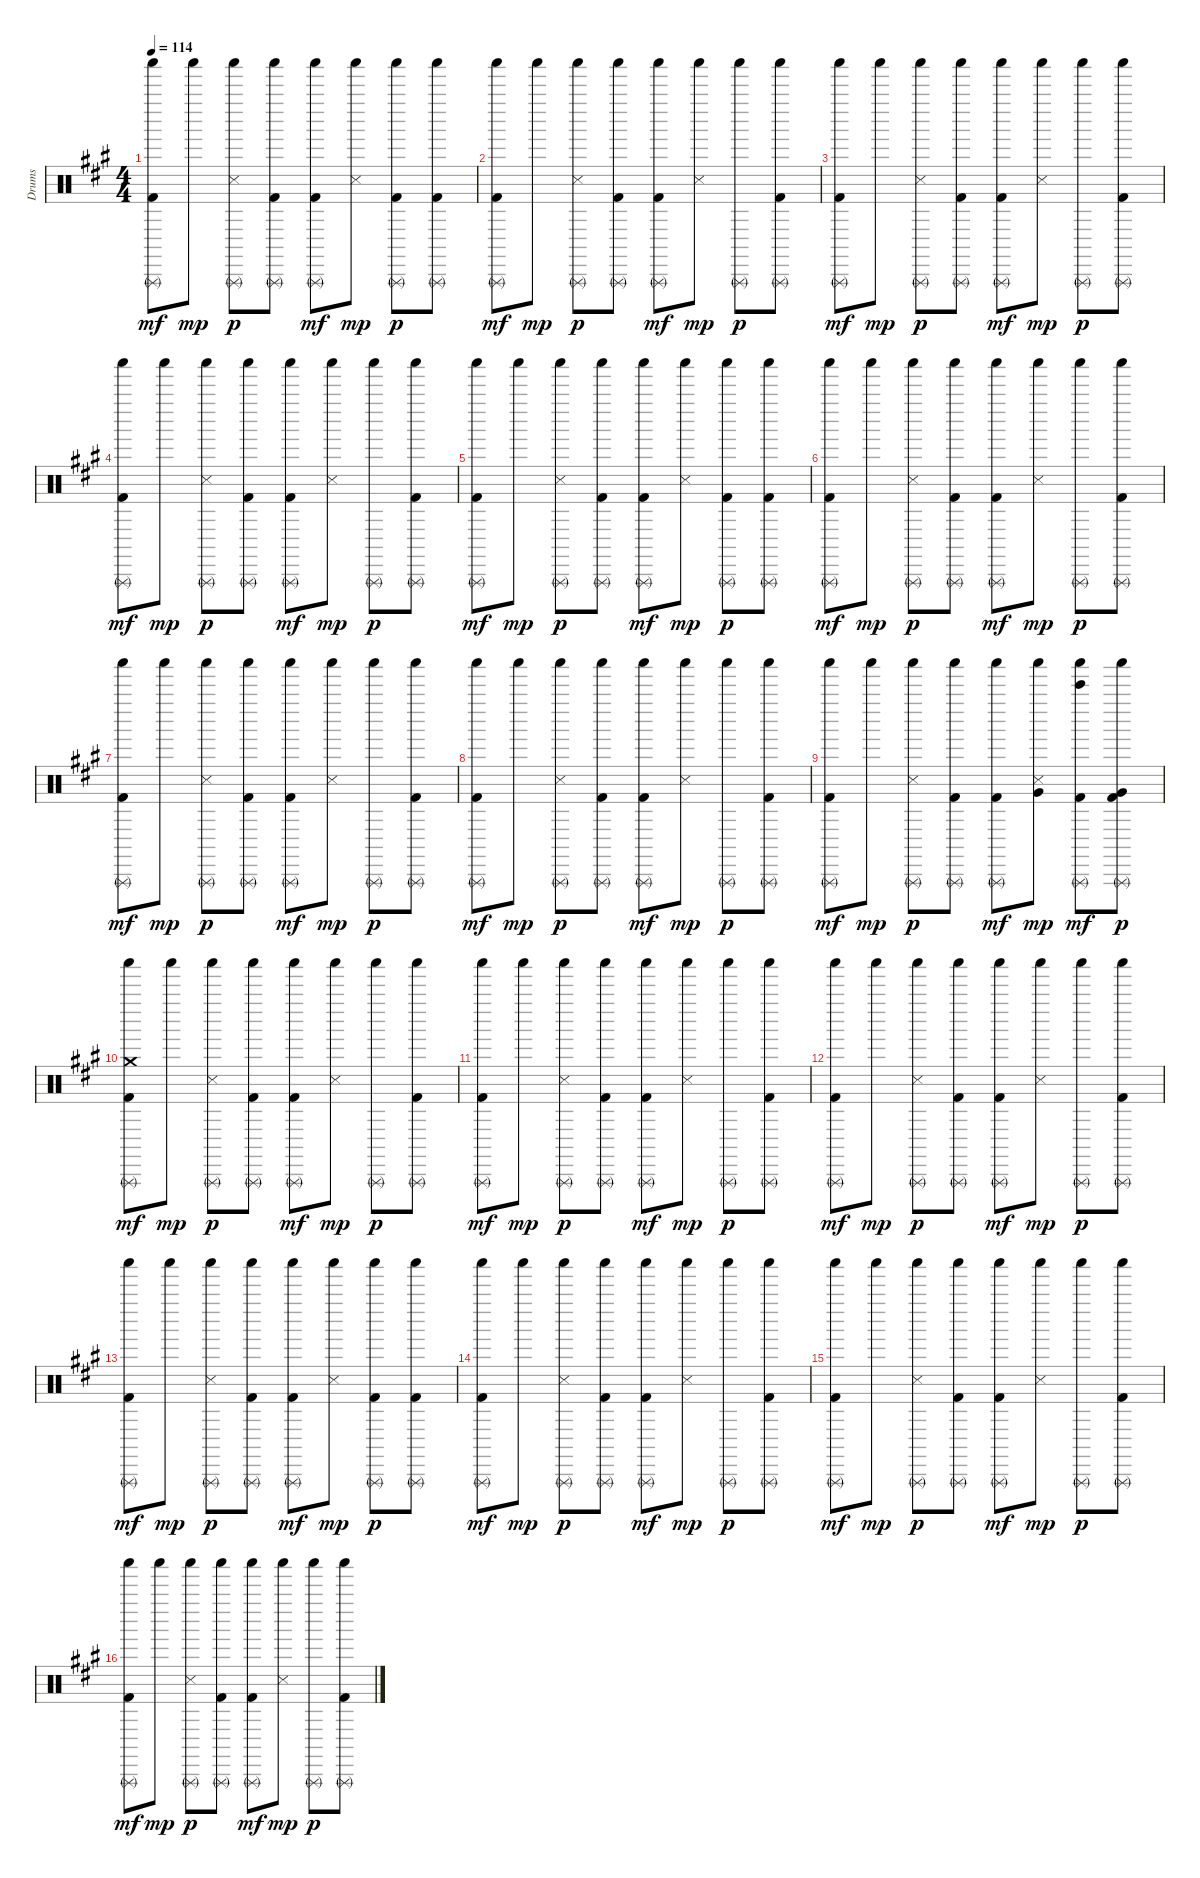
\track ("Drums" "Drums") {instrument percussion}
\staff {score}
\articulation defaults
\ts (4 4)
\tempo 114
\clef neutral
\ks a
("Kick (hit) 2" "Triangle (rnute)" "Shaker (hit)").8{dy mf} "Shaker (hit)".8{dy mp} ("Snare (side stick) 3" "Triangle (rnute)" "Shaker (hit)").8{dy p} ("Kick (hit) 2" "Triangle (rnute)" "Shaker (hit)").8 ("Kick (hit) 2" "Triangle (rnute)" "Shaker (hit)").8{dy mf} ("Snare (side stick) 3" "Shaker (hit)").8{dy mp} ("Kick (hit) 2" "Triangle (rnute)" "Shaker (hit)").8{dy p} ("Kick (hit) 2" "Triangle (rnute)" "Shaker (hit)").8 |
("Kick (hit) 2" "Triangle (rnute)" "Shaker (hit)").8{dy mf} "Shaker (hit)".8{dy mp} ("Snare (side stick) 3" "Triangle (rnute)" "Shaker (hit)").8{dy p} ("Kick (hit) 2" "Triangle (rnute)" "Shaker (hit)").8 ("Kick (hit) 2" "Triangle (rnute)" "Shaker (hit)").8{dy mf} ("Snare (side stick) 3" "Shaker (hit)").8{dy mp} ("Triangle (rnute)" "Shaker (hit)").8{dy p} ("Kick (hit) 2" "Triangle (rnute)" "Shaker (hit)").8 |
("Kick (hit) 2" "Triangle (rnute)" "Shaker (hit)").8{dy mf} "Shaker (hit)".8{dy mp} ("Snare (side stick) 3" "Triangle (rnute)" "Shaker (hit)").8{dy p} ("Kick (hit) 2" "Triangle (rnute)" "Shaker (hit)").8 ("Kick (hit) 2" "Triangle (rnute)" "Shaker (hit)").8{dy mf} ("Snare (side stick) 3" "Shaker (hit)").8{dy mp} ("Triangle (rnute)" "Shaker (hit)").8{dy p} ("Kick (hit) 2" "Triangle (rnute)" "Shaker (hit)").8 |
("Kick (hit) 2" "Triangle (rnute)" "Shaker (hit)").8{dy mf} "Shaker (hit)".8{dy mp} ("Snare (side stick) 3" "Triangle (rnute)" "Shaker (hit)").8{dy p} ("Kick (hit) 2" "Triangle (rnute)" "Shaker (hit)").8 ("Kick (hit) 2" "Triangle (rnute)" "Shaker (hit)").8{dy mf} ("Snare (side stick) 3" "Shaker (hit)").8{dy mp} ("Triangle (rnute)" "Shaker (hit)").8{dy p} ("Kick (hit) 2" "Triangle (rnute)" "Shaker (hit)").8 |
("Kick (hit) 2" "Triangle (rnute)" "Shaker (hit)").8{dy mf} "Shaker (hit)".8{dy mp} ("Snare (side stick) 3" "Triangle (rnute)" "Shaker (hit)").8{dy p} ("Kick (hit) 2" "Triangle (rnute)" "Shaker (hit)").8 ("Kick (hit) 2" "Triangle (rnute)" "Shaker (hit)").8{dy mf} ("Snare (side stick) 3" "Shaker (hit)").8{dy mp} ("Kick (hit) 2" "Triangle (rnute)" "Shaker (hit)").8{dy p} ("Kick (hit) 2" "Triangle (rnute)" "Shaker (hit)").8 |
("Kick (hit) 2" "Triangle (rnute)" "Shaker (hit)").8{dy mf} "Shaker (hit)".8{dy mp} ("Snare (side stick) 3" "Triangle (rnute)" "Shaker (hit)").8{dy p} ("Kick (hit) 2" "Triangle (rnute)" "Shaker (hit)").8 ("Kick (hit) 2" "Triangle (rnute)" "Shaker (hit)").8{dy mf} ("Snare (side stick) 3" "Shaker (hit)").8{dy mp} ("Triangle (rnute)" "Shaker (hit)").8{dy p} ("Kick (hit) 2" "Triangle (rnute)" "Shaker (hit)").8 |
("Kick (hit) 2" "Triangle (rnute)" "Shaker (hit)").8{dy mf} "Shaker (hit)".8{dy mp} ("Snare (side stick) 3" "Triangle (rnute)" "Shaker (hit)").8{dy p} ("Kick (hit) 2" "Triangle (rnute)" "Shaker (hit)").8 ("Kick (hit) 2" "Triangle (rnute)" "Shaker (hit)").8{dy mf} ("Snare (side stick) 3" "Shaker (hit)").8{dy mp} ("Triangle (rnute)" "Shaker (hit)").8{dy p} ("Kick (hit) 2" "Triangle (rnute)" "Shaker (hit)").8 |
("Kick (hit) 2" "Triangle (rnute)" "Shaker (hit)").8{dy mf} "Shaker (hit)".8{dy mp} ("Snare (side stick) 3" "Triangle (rnute)" "Shaker (hit)").8{dy p} ("Kick (hit) 2" "Triangle (rnute)" "Shaker (hit)").8 ("Kick (hit) 2" "Triangle (rnute)" "Shaker (hit)").8{dy mf} ("Snare (side stick) 3" "Shaker (hit)").8{dy mp} ("Triangle (rnute)" "Shaker (hit)").8{dy p} ("Kick (hit) 2" "Triangle (rnute)" "Shaker (hit)").8 |
("Kick (hit) 2" "Triangle (rnute)" "Shaker (hit)").8{dy mf} "Shaker (hit)".8{dy mp} ("Snare (side stick) 3" "Triangle (rnute)" "Shaker (hit)").8{dy p} ("Kick (hit) 2" "Triangle (rnute)" "Shaker (hit)").8 ("Kick (hit) 2" "Triangle (rnute)" "Shaker (hit)").8{dy mf} ("Snare (side stick) 3" "Very Low Tom (hit)" "Shaker (hit)").8{dy mp} ("Kick (hit) 2" "Triangle (rnute)" "Shaker (hit)" "Bell Tree (hit)").8{dy mf} ("Kick (hit) 2" "Very Low Tom (hit)" "Triangle (rnute)" "Shaker (hit)").8{dy p} |
("Kick (hit) 2" "Crash medium (hit)" "Triangle (rnute)" "Shaker (hit)").8{dy mf} "Shaker (hit)".8{dy mp} ("Snare (side stick) 3" "Triangle (rnute)" "Shaker (hit)").8{dy p} ("Kick (hit) 2" "Triangle (rnute)" "Shaker (hit)").8 ("Kick (hit) 2" "Triangle (rnute)" "Shaker (hit)").8{dy mf} ("Snare (side stick) 3" "Shaker (hit)").8{dy mp} ("Triangle (rnute)" "Shaker (hit)").8{dy p} ("Kick (hit) 2" "Triangle (rnute)" "Shaker (hit)").8 |
("Kick (hit) 2" "Triangle (rnute)" "Shaker (hit)").8{dy mf} "Shaker (hit)".8{dy mp} ("Snare (side stick) 3" "Triangle (rnute)" "Shaker (hit)").8{dy p} ("Kick (hit) 2" "Triangle (rnute)" "Shaker (hit)").8 ("Kick (hit) 2" "Triangle (rnute)" "Shaker (hit)").8{dy mf} ("Snare (side stick) 3" "Shaker (hit)").8{dy mp} ("Triangle (rnute)" "Shaker (hit)").8{dy p} ("Kick (hit) 2" "Triangle (rnute)" "Shaker (hit)").8 |
("Kick (hit) 2" "Triangle (rnute)" "Shaker (hit)").8{dy mf} "Shaker (hit)".8{dy mp} ("Snare (side stick) 3" "Triangle (rnute)" "Shaker (hit)").8{dy p} ("Kick (hit) 2" "Triangle (rnute)" "Shaker (hit)").8 ("Kick (hit) 2" "Triangle (rnute)" "Shaker (hit)").8{dy mf} ("Snare (side stick) 3" "Shaker (hit)").8{dy mp} ("Triangle (rnute)" "Shaker (hit)").8{dy p} ("Kick (hit) 2" "Triangle (rnute)" "Shaker (hit)").8 |
("Kick (hit) 2" "Triangle (rnute)" "Shaker (hit)").8{dy mf} "Shaker (hit)".8{dy mp} ("Snare (side stick) 3" "Triangle (rnute)" "Shaker (hit)").8{dy p} ("Kick (hit) 2" "Triangle (rnute)" "Shaker (hit)").8 ("Kick (hit) 2" "Triangle (rnute)" "Shaker (hit)").8{dy mf} ("Snare (side stick) 3" "Shaker (hit)").8{dy mp} ("Kick (hit) 2" "Triangle (rnute)" "Shaker (hit)").8{dy p} ("Kick (hit) 2" "Triangle (rnute)" "Shaker (hit)").8 |
("Kick (hit) 2" "Triangle (rnute)" "Shaker (hit)").8{dy mf} "Shaker (hit)".8{dy mp} ("Snare (side stick) 3" "Triangle (rnute)" "Shaker (hit)").8{dy p} ("Kick (hit) 2" "Triangle (rnute)" "Shaker (hit)").8 ("Kick (hit) 2" "Triangle (rnute)" "Shaker (hit)").8{dy mf} ("Snare (side stick) 3" "Shaker (hit)").8{dy mp} ("Triangle (rnute)" "Shaker (hit)").8{dy p} ("Kick (hit) 2" "Triangle (rnute)" "Shaker (hit)").8 |
("Kick (hit) 2" "Triangle (rnute)" "Shaker (hit)").8{dy mf} "Shaker (hit)".8{dy mp} ("Snare (side stick) 3" "Triangle (rnute)" "Shaker (hit)").8{dy p} ("Kick (hit) 2" "Triangle (rnute)" "Shaker (hit)").8 ("Kick (hit) 2" "Triangle (rnute)" "Shaker (hit)").8{dy mf} ("Snare (side stick) 3" "Shaker (hit)").8{dy mp} ("Triangle (rnute)" "Shaker (hit)").8{dy p} ("Kick (hit) 2" "Triangle (rnute)" "Shaker (hit)").8 |
("Kick (hit) 2" "Triangle (rnute)" "Shaker (hit)").8{dy mf} "Shaker (hit)".8{dy mp} ("Snare (side stick) 3" "Triangle (rnute)" "Shaker (hit)").8{dy p} ("Kick (hit) 2" "Triangle (rnute)" "Shaker (hit)").8 ("Kick (hit) 2" "Triangle (rnute)" "Shaker (hit)").8{dy mf} ("Snare (side stick) 3" "Shaker (hit)").8{dy mp} ("Triangle (rnute)" "Shaker (hit)").8{dy p} ("Kick (hit) 2" "Triangle (rnute)" "Shaker (hit)").8
